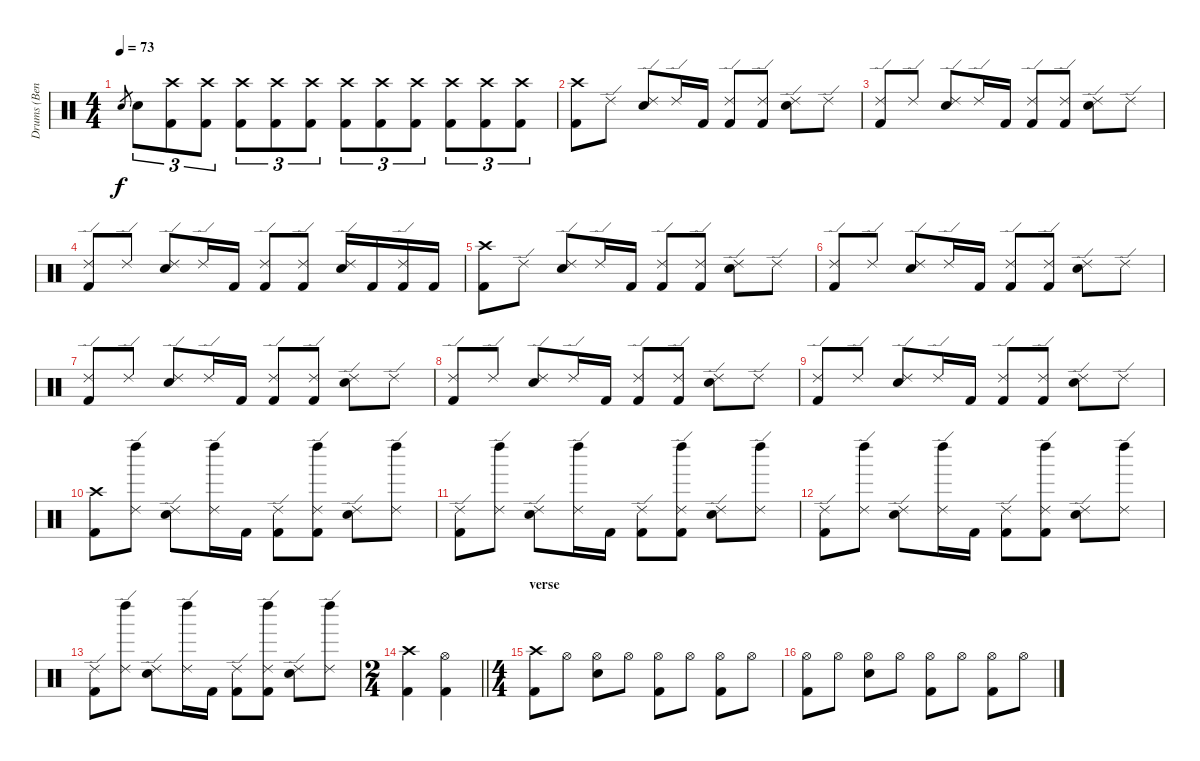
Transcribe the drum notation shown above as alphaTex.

\track ("Drums (Bengerg)" "Drums (Ben") {instrument percussion}
\staff {score}
\articulation defaults
\ts (4 4)
\tempo 73
\clef neutral
\ks c "Electric Snare (hit)".8{gr dy f} "Electric Snare (hit)".8{tu (3 2)}
("Crash high (hit)" "Kick (hit) 2").8{tu (3 2)} ("Crash high (hit)" "Kick (hit) 2").8{tu (3 2)} ("Crash high (hit)" "Kick (hit) 2").8{tu (3 2)} ("Crash high (hit)" "Kick (hit) 2").8{tu (3 2)} ("Crash high (hit)" "Kick (hit) 2").8{tu (3 2)} ("Crash high (hit)" "Kick (hit) 2").8{tu (3 2)} ("Crash high (hit)" "Kick (hit) 2").8{tu (3 2)} ("Crash high (hit)" "Kick (hit) 2").8{tu (3 2)} ("Crash high (hit)" "Kick (hit) 2").8{tu (3 2)} ("Crash high (hit)" "Kick (hit) 2").8{tu (3 2)} ("Crash high (hit)" "Kick (hit) 2").8{tu (3 2)} |
("Crash high (hit)" "Kick (hit) 2").8 "Ride (edge) 2".8 ("Ride (edge) 2" "Electric Snare (hit)").8 "Ride (edge) 2".16 "Kick (hit) 2".16 ("Ride (edge) 2" "Kick (hit) 2").8 ("Ride (edge) 2" "Kick (hit) 2").8 ("Ride (edge) 2" "Electric Snare (hit)").8 "Ride (edge) 2".8 |
("Ride (edge) 2" "Kick (hit) 2").8 "Ride (edge) 2".8 ("Ride (edge) 2" "Electric Snare (hit)").8 "Ride (edge) 2".16 "Kick (hit) 2".16 ("Ride (edge) 2" "Kick (hit) 2").8 ("Ride (edge) 2" "Kick (hit) 2").8 ("Ride (edge) 2" "Electric Snare (hit)").8 "Ride (edge) 2".8 |
("Ride (edge) 2" "Kick (hit) 2").8 "Ride (edge) 2".8 ("Ride (edge) 2" "Electric Snare (hit)").8 "Ride (edge) 2".16 "Kick (hit) 2".16 ("Ride (edge) 2" "Kick (hit) 2").8 ("Ride (edge) 2" "Kick (hit) 2").8 ("Ride (edge) 2" "Electric Snare (hit)").16 "Kick (hit) 2".16 ("Ride (edge) 2" "Kick (hit) 2").16 "Kick (hit) 2".16 |
("Crash high (hit)" "Kick (hit) 2").8 "Ride (edge) 2".8 ("Ride (edge) 2" "Electric Snare (hit)").8 "Ride (edge) 2".16 "Kick (hit) 2".16 ("Ride (edge) 2" "Kick (hit) 2").8 ("Ride (edge) 2" "Kick (hit) 2").8 ("Ride (edge) 2" "Electric Snare (hit)").8 "Ride (edge) 2".8 |
("Ride (edge) 2" "Kick (hit) 2").8 "Ride (edge) 2".8 ("Ride (edge) 2" "Electric Snare (hit)").8 "Ride (edge) 2".16 "Kick (hit) 2".16 ("Ride (edge) 2" "Kick (hit) 2").8 ("Ride (edge) 2" "Kick (hit) 2").8 ("Ride (edge) 2" "Electric Snare (hit)").8 "Ride (edge) 2".8 |
("Ride (edge) 2" "Kick (hit) 2").8 "Ride (edge) 2".8 ("Ride (edge) 2" "Electric Snare (hit)").8 "Ride (edge) 2".16 "Kick (hit) 2".16 ("Ride (edge) 2" "Kick (hit) 2").8 ("Ride (edge) 2" "Kick (hit) 2").8 ("Ride (edge) 2" "Electric Snare (hit)").8 "Ride (edge) 2".8 |
("Ride (edge) 2" "Kick (hit) 2").8 "Ride (edge) 2".8 ("Ride (edge) 2" "Electric Snare (hit)").8 "Ride (edge) 2".16 "Kick (hit) 2".16 ("Ride (edge) 2" "Kick (hit) 2").8 ("Ride (edge) 2" "Kick (hit) 2").8 ("Ride (edge) 2" "Electric Snare (hit)").8 "Ride (edge) 2".8 |
("Ride (edge) 2" "Kick (hit) 2").8 "Ride (edge) 2".8 ("Ride (edge) 2" "Electric Snare (hit)").8 "Ride (edge) 2".16 "Kick (hit) 2".16 ("Ride (edge) 2" "Kick (hit) 2").8 ("Ride (edge) 2" "Kick (hit) 2").8 ("Ride (edge) 2" "Electric Snare (hit)").8 "Ride (edge) 2".8 |
("Crash high (hit)" "Kick (hit) 2").8 ("Ride (edge) 2" "Left Maraca (hit)").8 ("Ride (edge) 2" "Electric Snare (hit)").8 ("Ride (edge) 2" "Left Maraca (hit)").16 "Kick (hit) 2".16 ("Ride (edge) 2" "Kick (hit) 2").8 ("Ride (edge) 2" "Kick (hit) 2" "Left Maraca (hit)").8 ("Ride (edge) 2" "Electric Snare (hit)").8 ("Ride (edge) 2" "Left Maraca (hit)").8 |
("Ride (edge) 2" "Kick (hit) 2").8 ("Ride (edge) 2" "Left Maraca (hit)").8 ("Ride (edge) 2" "Electric Snare (hit)").8 ("Ride (edge) 2" "Left Maraca (hit)").16 "Kick (hit) 2".16 ("Ride (edge) 2" "Kick (hit) 2").8 ("Ride (edge) 2" "Kick (hit) 2" "Left Maraca (hit)").8 ("Ride (edge) 2" "Electric Snare (hit)").8 ("Ride (edge) 2" "Left Maraca (hit)").8 |
("Ride (edge) 2" "Kick (hit) 2").8 ("Ride (edge) 2" "Left Maraca (hit)").8 ("Ride (edge) 2" "Electric Snare (hit)").8 ("Ride (edge) 2" "Left Maraca (hit)").16 "Kick (hit) 2".16 ("Ride (edge) 2" "Kick (hit) 2").8 ("Ride (edge) 2" "Kick (hit) 2" "Left Maraca (hit)").8 ("Ride (edge) 2" "Electric Snare (hit)").8 ("Ride (edge) 2" "Left Maraca (hit)").8 |
("Ride (edge) 2" "Kick (hit) 2").8 ("Ride (edge) 2" "Left Maraca (hit)").8 ("Ride (edge) 2" "Electric Snare (hit)").8 ("Ride (edge) 2" "Left Maraca (hit)").16 "Kick (hit) 2".16 ("Ride (edge) 2" "Kick (hit) 2").8 ("Ride (edge) 2" "Kick (hit) 2" "Left Maraca (hit)").8 ("Ride (edge) 2" "Electric Snare (hit)").8 ("Ride (edge) 2" "Left Maraca (hit)").8 |
\ts (2 4)
\barLineRight lightlight
("Crash high (hit)" "Kick (hit) 2").4 ("Hi-Hat (open)" "Kick (hit) 2").4 |
\ts (4 4)
\section ("" "verse")
("Crash high (hit)" "Kick (hit) 2").8 "Hi-Hat (open)".8 ("Hi-Hat (open)" "Electric Snare (hit)").8 "Hi-Hat (open)".8 ("Hi-Hat (open)" "Kick (hit) 2").8 "Hi-Hat (open)".8 ("Hi-Hat (open)" "Kick (hit) 2").8 "Hi-Hat (open)".8 |
("Hi-Hat (open)" "Kick (hit) 2").8 "Hi-Hat (open)".8 ("Hi-Hat (open)" "Electric Snare (hit)").8 "Hi-Hat (open)".8 ("Hi-Hat (open)" "Kick (hit) 2").8 "Hi-Hat (open)".8 ("Hi-Hat (open)" "Kick (hit) 2").8 "Hi-Hat (open)".8
